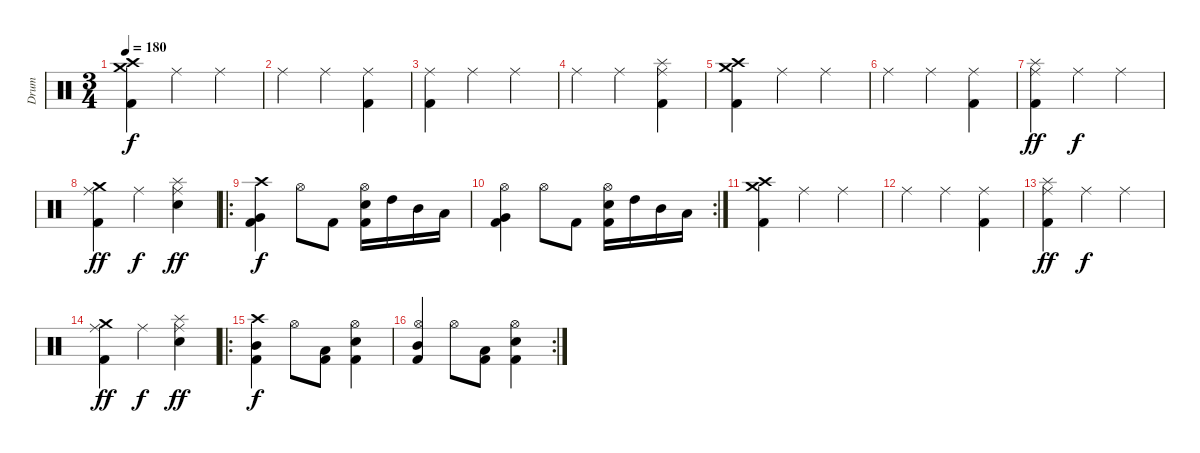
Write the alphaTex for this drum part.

\track ("Drum" "Drum") {instrument percussion}
\staff {score}
\articulation defaults
\ts (3 4)
\tempo 180
\clef neutral
\ks c
("Crash high (hit)" "Crash medium (hit)" "Kick (hit) 2").4{dy f} "Ride (middle)".4 "Ride (middle)".4 |
"Ride (middle)".4 "Ride (middle)".4 ("Ride (middle)" "Kick (hit) 2").4 |
("Ride (middle)" "Kick (hit) 2").4 "Ride (middle)".4 "Ride (middle)".4 |
"Ride (middle)".4 "Ride (middle)".4 ("Splash (hit)" "Ride (middle)" "Kick (hit) 2").4 |
("Crash high (hit)" "Crash medium (hit)" "Kick (hit) 2").4 "Ride (middle)".4 "Ride (middle)".4 |
"Ride (middle)".4 "Ride (middle)".4 ("Ride (middle)" "Kick (hit) 2").4 |
("Splash (hit)" "Ride (middle)" "Kick (hit) 2").4{dy ff} "Ride (middle)".4{dy f} "Ride (middle)".4 |
("Crash medium (hit)" "Ride (middle)" "Kick (hit) 2").4{dy ff} "Ride (middle)".4{dy f} ("Splash (hit)" "Ride (middle)" "Electric Snare (hit)").4{dy ff} |
\ro
("Crash high (hit)" "Very Low Tom (hit)" "Kick (hit) 2").4{dy f} "Hi-Hat (open)".8 "Kick (hit) 2".8 ("Hi-Hat (open)" "Electric Snare (hit)" "Kick (hit) 2").16 "High Tom (hit)".16 "Mid Tom (hit)".16 "Low Tom (hit)".16 |
\rc 2
("Hi-Hat (open)" "Very Low Tom (hit)" "Kick (hit) 2").4 "Hi-Hat (open)".8 "Kick (hit) 2".8 ("Hi-Hat (open)" "Electric Snare (hit)" "Kick (hit) 2").16 "High Tom (hit)".16 "Mid Tom (hit)".16 "Low Tom (hit)".16 |
("Crash high (hit)" "Crash medium (hit)" "Kick (hit) 2").4 "Ride (middle)".4 "Ride (middle)".4 |
"Ride (middle)".4 "Ride (middle)".4 ("Ride (middle)" "Kick (hit) 2").4 |
("Splash (hit)" "Ride (middle)" "Kick (hit) 2").4{dy ff} "Ride (middle)".4{dy f} "Ride (middle)".4 |
("Crash medium (hit)" "Ride (middle)" "Kick (hit) 2").4{dy ff} "Ride (middle)".4{dy f} ("Splash (hit)" "Ride (middle)" "Electric Snare (hit)").4{dy ff} |
\ro
("Crash high (hit)" "Mid Tom (hit)" "Kick (hit) 2").4{dy f} "Hi-Hat (open)".8 ("Low Tom (hit)" "Kick (hit) 2").8 ("Hi-Hat (open)" "Electric Snare (hit)" "Kick (hit) 2").4 |
\rc 2
("Hi-Hat (open)" "Mid Tom (hit)" "Kick (hit) 2").4 "Hi-Hat (open)".8 ("Low Tom (hit)" "Kick (hit) 2").8 ("Hi-Hat (open)" "Electric Snare (hit)" "Kick (hit) 2").4
